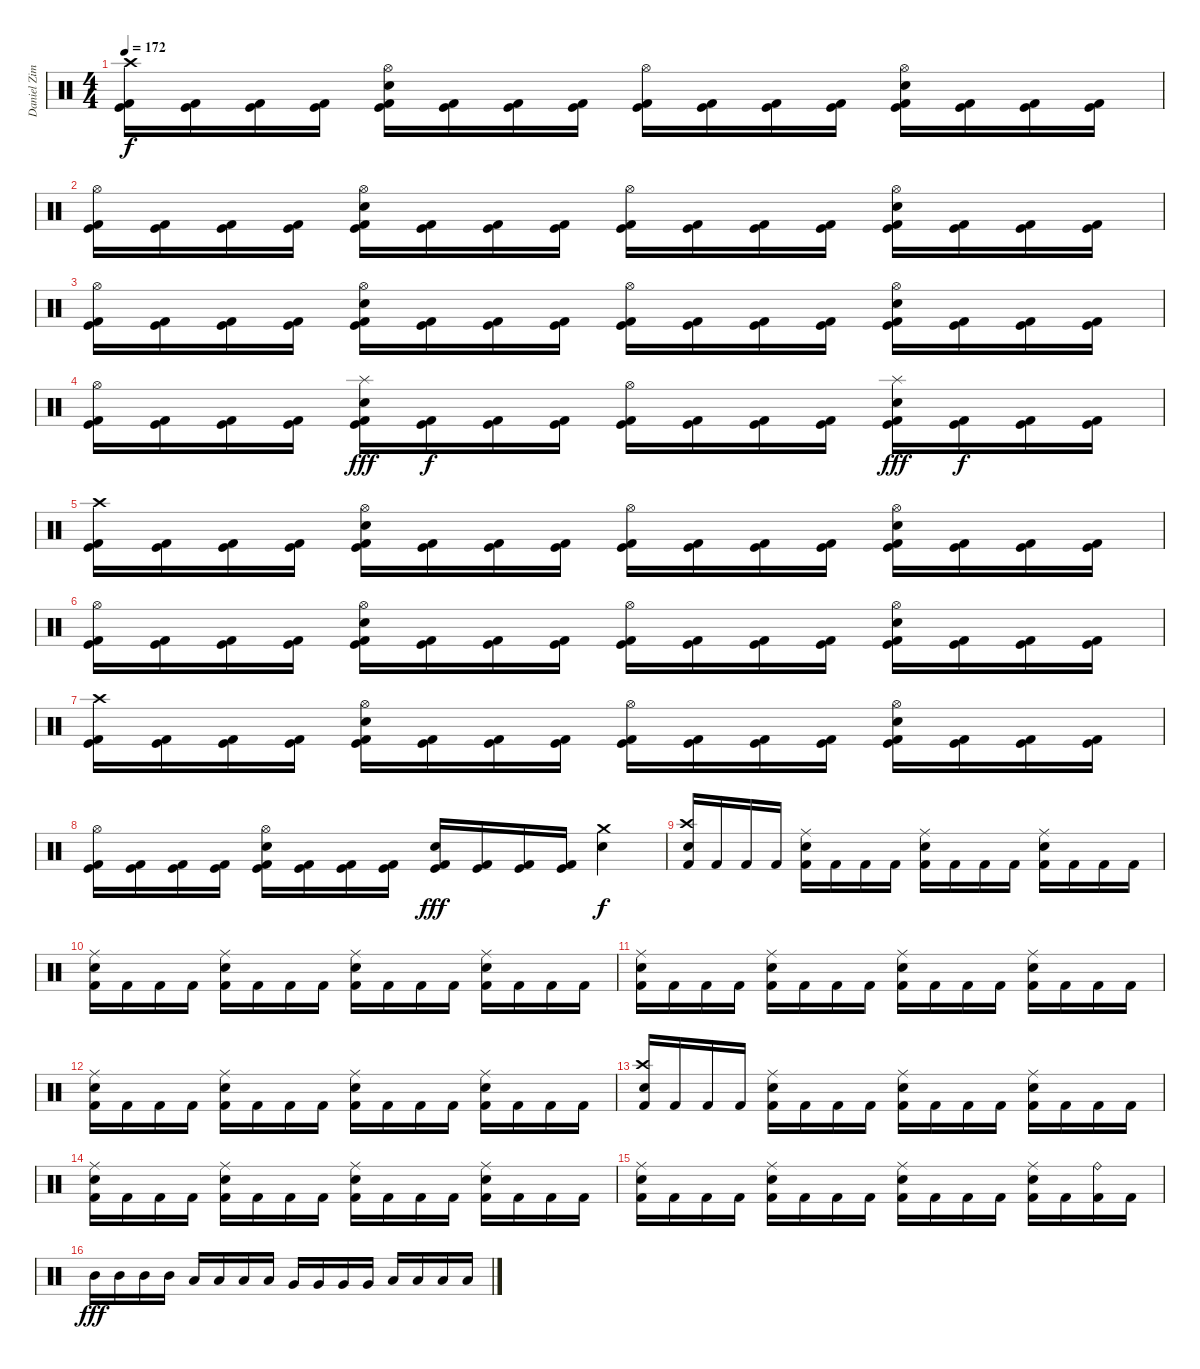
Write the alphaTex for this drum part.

\track ("Daniel Zimmermann - Drums" "Daniel Zim") {instrument percussion}
\staff {score}
\articulation defaults
\ts (4 4)
\tempo 172
\clef neutral
\ks c
("Kick (hit) 2" "Kick (hit)" "Crash high (hit)").16{dy f} ("Kick (hit) 2" "Kick (hit)").16 ("Kick (hit) 2" "Kick (hit)").16 ("Kick (hit) 2" "Kick (hit)").16 ("Kick (hit) 2" "Kick (hit)" "Electric Snare (hit)" "Hi-Hat (open)").16 ("Kick (hit) 2" "Kick (hit)").16 ("Kick (hit) 2" "Kick (hit)").16 ("Kick (hit) 2" "Kick (hit)").16 ("Kick (hit) 2" "Kick (hit)" "Hi-Hat (open)").16 ("Kick (hit) 2" "Kick (hit)").16 ("Kick (hit) 2" "Kick (hit)").16 ("Kick (hit) 2" "Kick (hit)").16 ("Kick (hit) 2" "Kick (hit)" "Electric Snare (hit)" "Hi-Hat (open)").16 ("Kick (hit) 2" "Kick (hit)").16 ("Kick (hit) 2" "Kick (hit)").16 ("Kick (hit) 2" "Kick (hit)").16 |
("Kick (hit) 2" "Kick (hit)" "Hi-Hat (open)").16 ("Kick (hit) 2" "Kick (hit)").16 ("Kick (hit) 2" "Kick (hit)").16 ("Kick (hit) 2" "Kick (hit)").16 ("Kick (hit) 2" "Kick (hit)" "Electric Snare (hit)" "Hi-Hat (open)").16 ("Kick (hit) 2" "Kick (hit)").16 ("Kick (hit) 2" "Kick (hit)").16 ("Kick (hit) 2" "Kick (hit)").16 ("Kick (hit) 2" "Kick (hit)" "Hi-Hat (open)").16 ("Kick (hit) 2" "Kick (hit)").16 ("Kick (hit) 2" "Kick (hit)").16 ("Kick (hit) 2" "Kick (hit)").16 ("Kick (hit) 2" "Kick (hit)" "Electric Snare (hit)" "Hi-Hat (open)").16 ("Kick (hit) 2" "Kick (hit)").16 ("Kick (hit) 2" "Kick (hit)").16 ("Kick (hit) 2" "Kick (hit)").16 |
("Kick (hit) 2" "Kick (hit)" "Hi-Hat (open)").16 ("Kick (hit) 2" "Kick (hit)").16 ("Kick (hit) 2" "Kick (hit)").16 ("Kick (hit) 2" "Kick (hit)").16 ("Kick (hit) 2" "Kick (hit)" "Electric Snare (hit)" "Hi-Hat (open)").16 ("Kick (hit) 2" "Kick (hit)").16 ("Kick (hit) 2" "Kick (hit)").16 ("Kick (hit) 2" "Kick (hit)").16 ("Kick (hit) 2" "Kick (hit)" "Hi-Hat (open)").16 ("Kick (hit) 2" "Kick (hit)").16 ("Kick (hit) 2" "Kick (hit)").16 ("Kick (hit) 2" "Kick (hit)").16 ("Kick (hit) 2" "Kick (hit)" "Electric Snare (hit)" "Hi-Hat (open)").16 ("Kick (hit) 2" "Kick (hit)").16 ("Kick (hit) 2" "Kick (hit)").16 ("Kick (hit) 2" "Kick (hit)").16 |
("Kick (hit) 2" "Kick (hit)" "Hi-Hat (open)").16 ("Kick (hit) 2" "Kick (hit)").16 ("Kick (hit) 2" "Kick (hit)").16 ("Kick (hit) 2" "Kick (hit)").16 ("Kick (hit) 2" "Kick (hit)" "Electric Snare (hit)" "Splash (hit)").16{dy fff} ("Kick (hit) 2" "Kick (hit)").16{dy f} ("Kick (hit) 2" "Kick (hit)").16 ("Kick (hit) 2" "Kick (hit)").16 ("Kick (hit) 2" "Kick (hit)" "Hi-Hat (open)").16 ("Kick (hit) 2" "Kick (hit)").16 ("Kick (hit) 2" "Kick (hit)").16 ("Kick (hit) 2" "Kick (hit)").16 ("Kick (hit) 2" "Kick (hit)" "Electric Snare (hit)" "Splash (hit)").16{dy fff} ("Kick (hit) 2" "Kick (hit)").16{dy f} ("Kick (hit) 2" "Kick (hit)").16 ("Kick (hit) 2" "Kick (hit)").16 |
("Kick (hit) 2" "Kick (hit)" "Crash high (hit)").16 ("Kick (hit) 2" "Kick (hit)").16 ("Kick (hit) 2" "Kick (hit)").16 ("Kick (hit) 2" "Kick (hit)").16 ("Kick (hit) 2" "Kick (hit)" "Electric Snare (hit)" "Hi-Hat (open)").16 ("Kick (hit) 2" "Kick (hit)").16 ("Kick (hit) 2" "Kick (hit)").16 ("Kick (hit) 2" "Kick (hit)").16 ("Kick (hit) 2" "Kick (hit)" "Hi-Hat (open)").16 ("Kick (hit) 2" "Kick (hit)").16 ("Kick (hit) 2" "Kick (hit)").16 ("Kick (hit) 2" "Kick (hit)").16 ("Kick (hit) 2" "Kick (hit)" "Electric Snare (hit)" "Hi-Hat (open)").16 ("Kick (hit) 2" "Kick (hit)").16 ("Kick (hit) 2" "Kick (hit)").16 ("Kick (hit) 2" "Kick (hit)").16 |
("Kick (hit) 2" "Kick (hit)" "Hi-Hat (open)").16 ("Kick (hit) 2" "Kick (hit)").16 ("Kick (hit) 2" "Kick (hit)").16 ("Kick (hit) 2" "Kick (hit)").16 ("Kick (hit) 2" "Kick (hit)" "Electric Snare (hit)" "Hi-Hat (open)").16 ("Kick (hit) 2" "Kick (hit)").16 ("Kick (hit) 2" "Kick (hit)").16 ("Kick (hit) 2" "Kick (hit)").16 ("Kick (hit) 2" "Kick (hit)" "Hi-Hat (open)").16 ("Kick (hit) 2" "Kick (hit)").16 ("Kick (hit) 2" "Kick (hit)").16 ("Kick (hit) 2" "Kick (hit)").16 ("Kick (hit) 2" "Kick (hit)" "Electric Snare (hit)" "Hi-Hat (open)").16 ("Kick (hit) 2" "Kick (hit)").16 ("Kick (hit) 2" "Kick (hit)").16 ("Kick (hit) 2" "Kick (hit)").16 |
("Kick (hit) 2" "Kick (hit)" "Crash high (hit)").16 ("Kick (hit) 2" "Kick (hit)").16 ("Kick (hit) 2" "Kick (hit)").16 ("Kick (hit) 2" "Kick (hit)").16 ("Kick (hit) 2" "Kick (hit)" "Electric Snare (hit)" "Hi-Hat (open)").16 ("Kick (hit) 2" "Kick (hit)").16 ("Kick (hit) 2" "Kick (hit)").16 ("Kick (hit) 2" "Kick (hit)").16 ("Kick (hit) 2" "Kick (hit)" "Hi-Hat (open)").16 ("Kick (hit) 2" "Kick (hit)").16 ("Kick (hit) 2" "Kick (hit)").16 ("Kick (hit) 2" "Kick (hit)").16 ("Kick (hit) 2" "Kick (hit)" "Electric Snare (hit)" "Hi-Hat (open)").16 ("Kick (hit) 2" "Kick (hit)").16 ("Kick (hit) 2" "Kick (hit)").16 ("Kick (hit) 2" "Kick (hit)").16 |
("Kick (hit) 2" "Kick (hit)" "Hi-Hat (open)").16 ("Kick (hit) 2" "Kick (hit)").16 ("Kick (hit) 2" "Kick (hit)").16 ("Kick (hit) 2" "Kick (hit)").16 ("Kick (hit) 2" "Kick (hit)" "Electric Snare (hit)" "Hi-Hat (open)").16 ("Kick (hit) 2" "Kick (hit)").16 ("Kick (hit) 2" "Kick (hit)").16 ("Kick (hit) 2" "Kick (hit)").16 ("Kick (hit) 2" "Kick (hit)" "Electric Snare (hit)").16{dy fff} ("Kick (hit) 2" "Kick (hit)").16 ("Kick (hit) 2" "Kick (hit)").16 ("Kick (hit) 2" "Kick (hit)").16 ("Electric Snare (hit)" "Crash medium (hit)").4{dy f} |
("Kick (hit) 2" "Electric Snare (hit)" "Crash high (hit)").16 "Kick (hit) 2".16 "Kick (hit) 2".16 "Kick (hit) 2".16 ("Kick (hit) 2" "Electric Snare (hit)" "Ride (middle)").16 "Kick (hit) 2".16 "Kick (hit) 2".16 "Kick (hit) 2".16 ("Kick (hit) 2" "Electric Snare (hit)" "Ride (middle)").16 "Kick (hit) 2".16 "Kick (hit) 2".16 "Kick (hit) 2".16 ("Kick (hit) 2" "Electric Snare (hit)" "Ride (middle)").16 "Kick (hit) 2".16 "Kick (hit) 2".16 "Kick (hit) 2".16 |
("Kick (hit) 2" "Electric Snare (hit)" "Ride (middle)").16 "Kick (hit) 2".16 "Kick (hit) 2".16 "Kick (hit) 2".16 ("Kick (hit) 2" "Electric Snare (hit)" "Ride (middle)").16 "Kick (hit) 2".16 "Kick (hit) 2".16 "Kick (hit) 2".16 ("Kick (hit) 2" "Electric Snare (hit)" "Ride (middle)").16 "Kick (hit) 2".16 "Kick (hit) 2".16 "Kick (hit) 2".16 ("Kick (hit) 2" "Electric Snare (hit)" "Ride (middle)").16 "Kick (hit) 2".16 "Kick (hit) 2".16 "Kick (hit) 2".16 |
("Kick (hit) 2" "Electric Snare (hit)" "Ride (middle)").16 "Kick (hit) 2".16 "Kick (hit) 2".16 "Kick (hit) 2".16 ("Kick (hit) 2" "Electric Snare (hit)" "Ride (middle)").16 "Kick (hit) 2".16 "Kick (hit) 2".16 "Kick (hit) 2".16 ("Kick (hit) 2" "Electric Snare (hit)" "Ride (middle)").16 "Kick (hit) 2".16 "Kick (hit) 2".16 "Kick (hit) 2".16 ("Kick (hit) 2" "Electric Snare (hit)" "Ride (middle)").16 "Kick (hit) 2".16 "Kick (hit) 2".16 "Kick (hit) 2".16 |
("Kick (hit) 2" "Electric Snare (hit)" "Ride (middle)").16 "Kick (hit) 2".16 "Kick (hit) 2".16 "Kick (hit) 2".16 ("Kick (hit) 2" "Electric Snare (hit)" "Ride (middle)").16 "Kick (hit) 2".16 "Kick (hit) 2".16 "Kick (hit) 2".16 ("Kick (hit) 2" "Electric Snare (hit)" "Ride (middle)").16 "Kick (hit) 2".16 "Kick (hit) 2".16 "Kick (hit) 2".16 ("Kick (hit) 2" "Electric Snare (hit)" "Ride (middle)").16 "Kick (hit) 2".16 "Kick (hit) 2".16 "Kick (hit) 2".16 |
("Kick (hit) 2" "Electric Snare (hit)" "Crash high (hit)").16 "Kick (hit) 2".16 "Kick (hit) 2".16 "Kick (hit) 2".16 ("Kick (hit) 2" "Electric Snare (hit)" "Ride (middle)").16 "Kick (hit) 2".16 "Kick (hit) 2".16 "Kick (hit) 2".16 ("Kick (hit) 2" "Electric Snare (hit)" "Ride (middle)").16 "Kick (hit) 2".16 "Kick (hit) 2".16 "Kick (hit) 2".16 ("Kick (hit) 2" "Electric Snare (hit)" "Ride (middle)").16 "Kick (hit) 2".16 "Kick (hit) 2".16 "Kick (hit) 2".16 |
("Kick (hit) 2" "Electric Snare (hit)" "Ride (middle)").16 "Kick (hit) 2".16 "Kick (hit) 2".16 "Kick (hit) 2".16 ("Kick (hit) 2" "Electric Snare (hit)" "Ride (middle)").16 "Kick (hit) 2".16 "Kick (hit) 2".16 "Kick (hit) 2".16 ("Kick (hit) 2" "Electric Snare (hit)" "Ride (middle)").16 "Kick (hit) 2".16 "Kick (hit) 2".16 "Kick (hit) 2".16 ("Kick (hit) 2" "Electric Snare (hit)" "Ride (middle)").16 "Kick (hit) 2".16 "Kick (hit) 2".16 "Kick (hit) 2".16 |
("Kick (hit) 2" "Electric Snare (hit)" "Ride (middle)").16 "Kick (hit) 2".16 "Kick (hit) 2".16 "Kick (hit) 2".16 ("Kick (hit) 2" "Electric Snare (hit)" "Ride (middle)").16 "Kick (hit) 2".16 "Kick (hit) 2".16 "Kick (hit) 2".16 ("Kick (hit) 2" "Electric Snare (hit)" "Ride (middle)").16 "Kick (hit) 2".16 "Kick (hit) 2".16 "Kick (hit) 2".16 ("Kick (hit) 2" "Electric Snare (hit)" "Ride (middle)").16 "Kick (hit) 2".16 ("Kick (hit) 2" "Ride (bell)").16 "Kick (hit) 2".16 |
"Mid Tom (hit)".16{dy fff} "Mid Tom (hit)".16 "Mid Tom (hit)".16 "Mid Tom (hit)".16 "Low Tom (hit)".16 "Low Tom (hit)".16 "Low Tom (hit)".16 "Low Tom (hit)".16 "Very Low Tom (hit)".16 "Very Low Tom (hit)".16 "Very Low Tom (hit)".16 "Very Low Tom (hit)".16 "Low Floor Tom (hit)".16 "Low Floor Tom (hit)".16 "Low Floor Tom (hit)".16 "Low Floor Tom (hit)".16
